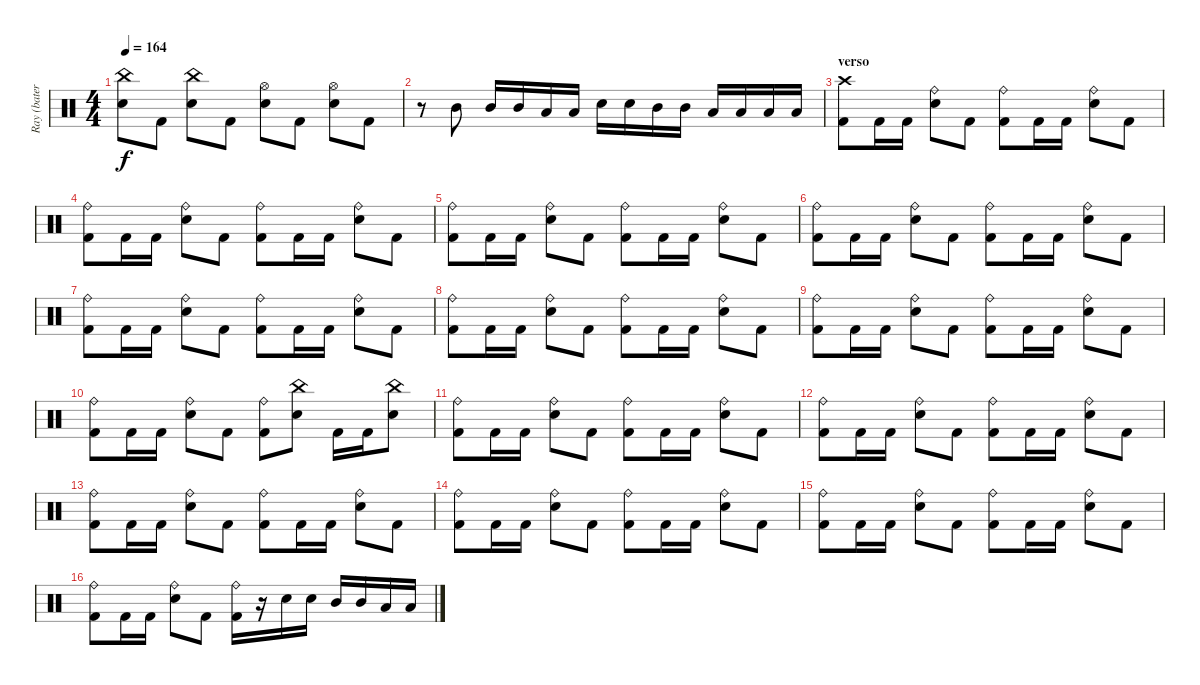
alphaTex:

\track ("Ray (batería)" "Ray (bater") {instrument percussion}
\staff {score}
\articulation defaults
\ts (4 4)
\tempo 164
\clef neutral
\ks c
("China (hit)" "Snare (hit) 2").8{dy f} "Kick (hit) 2".8 ("China (hit)" "Snare (hit) 2").8 "Kick (hit) 2".8 ("Hi-Hat (open)" "Snare (hit) 2").8 "Kick (hit) 2".8 ("Hi-Hat (open)" "Snare (hit) 2").8 "Kick (hit) 2".8 |
r.8 "Mid Tom (hit)".8 "Mid Tom (hit)".16 "Mid Tom (hit)".16 "Low Tom (hit)".16 "Low Tom (hit)".16 "Snare (hit) 2".16 "Snare (hit) 2".16 "Mid Tom (hit)".16 "Mid Tom (hit)".16 "Low Tom (hit)".16 "Low Tom (hit)".16 "Low Floor Tom (hit)".16 "Low Floor Tom (hit)".16 |
\section ("" "verso")
("Crash high (hit)" "Kick (hit) 2").8 "Kick (hit) 2".16 "Kick (hit) 2".16 ("Ride (bell)" "Snare (hit) 2").8 "Kick (hit) 2".8 ("Ride (bell)" "Kick (hit) 2").8 "Kick (hit) 2".16 "Kick (hit) 2".16 ("Ride (bell)" "Snare (hit) 2").8 "Kick (hit) 2".8 |
("Ride (bell)" "Kick (hit) 2").8 "Kick (hit) 2".16 "Kick (hit) 2".16 ("Ride (bell)" "Snare (hit) 2").8 "Kick (hit) 2".8 ("Ride (bell)" "Kick (hit) 2").8 "Kick (hit) 2".16 "Kick (hit) 2".16 ("Ride (bell)" "Snare (hit) 2").8 "Kick (hit) 2".8 |
("Ride (bell)" "Kick (hit) 2").8 "Kick (hit) 2".16 "Kick (hit) 2".16 ("Ride (bell)" "Snare (hit) 2").8 "Kick (hit) 2".8 ("Ride (bell)" "Kick (hit) 2").8 "Kick (hit) 2".16 "Kick (hit) 2".16 ("Ride (bell)" "Snare (hit) 2").8 "Kick (hit) 2".8 |
("Ride (bell)" "Kick (hit) 2").8 "Kick (hit) 2".16 "Kick (hit) 2".16 ("Ride (bell)" "Snare (hit) 2").8 "Kick (hit) 2".8 ("Ride (bell)" "Kick (hit) 2").8 "Kick (hit) 2".16 "Kick (hit) 2".16 ("Ride (bell)" "Snare (hit) 2").8 "Kick (hit) 2".8 |
("Ride (bell)" "Kick (hit) 2").8 "Kick (hit) 2".16 "Kick (hit) 2".16 ("Ride (bell)" "Snare (hit) 2").8 "Kick (hit) 2".8 ("Ride (bell)" "Kick (hit) 2").8 "Kick (hit) 2".16 "Kick (hit) 2".16 ("Ride (bell)" "Snare (hit) 2").8 "Kick (hit) 2".8 |
("Ride (bell)" "Kick (hit) 2").8 "Kick (hit) 2".16 "Kick (hit) 2".16 ("Ride (bell)" "Snare (hit) 2").8 "Kick (hit) 2".8 ("Ride (bell)" "Kick (hit) 2").8 "Kick (hit) 2".16 "Kick (hit) 2".16 ("Ride (bell)" "Snare (hit) 2").8 "Kick (hit) 2".8 |
("Ride (bell)" "Kick (hit) 2").8 "Kick (hit) 2".16 "Kick (hit) 2".16 ("Ride (bell)" "Snare (hit) 2").8 "Kick (hit) 2".8 ("Ride (bell)" "Kick (hit) 2").8 "Kick (hit) 2".16 "Kick (hit) 2".16 ("Ride (bell)" "Snare (hit) 2").8 "Kick (hit) 2".8 |
("Ride (bell)" "Kick (hit) 2").8 "Kick (hit) 2".16 "Kick (hit) 2".16 ("Ride (bell)" "Snare (hit) 2").8 "Kick (hit) 2".8 ("Ride (bell)" "Kick (hit) 2").8 ("China (hit)" "Snare (hit) 2").8 "Kick (hit) 2".16 "Kick (hit) 2".16 ("China (hit)" "Snare (hit) 2").8 |
("Ride (bell)" "Kick (hit) 2").8 "Kick (hit) 2".16 "Kick (hit) 2".16 ("Ride (bell)" "Snare (hit) 2").8 "Kick (hit) 2".8 ("Ride (bell)" "Kick (hit) 2").8 "Kick (hit) 2".16 "Kick (hit) 2".16 ("Ride (bell)" "Snare (hit) 2").8 "Kick (hit) 2".8 |
("Ride (bell)" "Kick (hit) 2").8 "Kick (hit) 2".16 "Kick (hit) 2".16 ("Ride (bell)" "Snare (hit) 2").8 "Kick (hit) 2".8 ("Ride (bell)" "Kick (hit) 2").8 "Kick (hit) 2".16 "Kick (hit) 2".16 ("Ride (bell)" "Snare (hit) 2").8 "Kick (hit) 2".8 |
("Ride (bell)" "Kick (hit) 2").8 "Kick (hit) 2".16 "Kick (hit) 2".16 ("Ride (bell)" "Snare (hit) 2").8 "Kick (hit) 2".8 ("Ride (bell)" "Kick (hit) 2").8 "Kick (hit) 2".16 "Kick (hit) 2".16 ("Ride (bell)" "Snare (hit) 2").8 "Kick (hit) 2".8 |
("Ride (bell)" "Kick (hit) 2").8 "Kick (hit) 2".16 "Kick (hit) 2".16 ("Ride (bell)" "Snare (hit) 2").8 "Kick (hit) 2".8 ("Ride (bell)" "Kick (hit) 2").8 "Kick (hit) 2".16 "Kick (hit) 2".16 ("Ride (bell)" "Snare (hit) 2").8 "Kick (hit) 2".8 |
("Ride (bell)" "Kick (hit) 2").8 "Kick (hit) 2".16 "Kick (hit) 2".16 ("Ride (bell)" "Snare (hit) 2").8 "Kick (hit) 2".8 ("Ride (bell)" "Kick (hit) 2").8 "Kick (hit) 2".16 "Kick (hit) 2".16 ("Ride (bell)" "Snare (hit) 2").8 "Kick (hit) 2".8 |
("Ride (bell)" "Kick (hit) 2").8 "Kick (hit) 2".16 "Kick (hit) 2".16 ("Ride (bell)" "Snare (hit) 2").8 "Kick (hit) 2".8 ("Ride (bell)" "Kick (hit) 2").16 r.16 "Snare (hit) 2".16 "Snare (hit) 2".16 "Mid Tom (hit)".16 "Mid Tom (hit)".16 "Low Tom (hit)".16 "Low Tom (hit)".16
